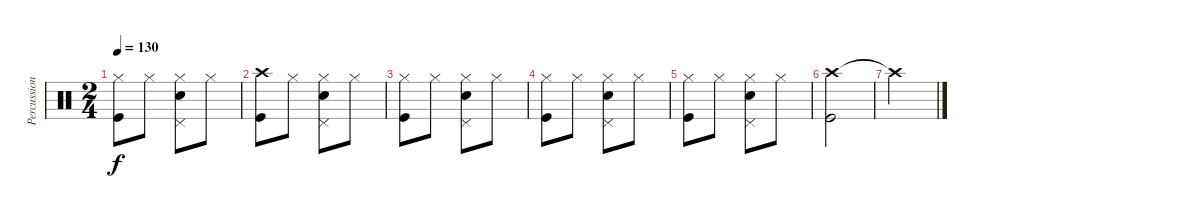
\track ("Percussioni" "Percussion") {instrument percussion}
\staff {score}
\articulation defaults
\ts (2 4)
\tempo 130
\clef neutral
\ks c
("Hi-Hat (closed)" "Kick (hit)").8{dy f} "Hi-Hat (closed)".8 ("Hi-Hat (closed)" "Pedal Hi-Hat (hit)" "Snare (hit) 2").8 "Hi-Hat (closed)".8 |
("Crash high (hit)" "Kick (hit)").8 "Hi-Hat (closed)".8 ("Hi-Hat (closed)" "Pedal Hi-Hat (hit)" "Snare (hit) 2").8 "Hi-Hat (closed)".8 |
("Hi-Hat (closed)" "Kick (hit)").8 "Hi-Hat (closed)".8 ("Hi-Hat (closed)" "Pedal Hi-Hat (hit)" "Snare (hit) 2").8 "Hi-Hat (closed)".8 |
("Hi-Hat (closed)" "Kick (hit)").8 "Hi-Hat (closed)".8 ("Hi-Hat (closed)" "Pedal Hi-Hat (hit)" "Snare (hit) 2").8 "Hi-Hat (closed)".8 |
("Hi-Hat (closed)" "Kick (hit)").8 "Hi-Hat (closed)".8 ("Hi-Hat (closed)" "Pedal Hi-Hat (hit)" "Snare (hit) 2").8 "Hi-Hat (closed)".8 |
("Crash high (hit)" "Kick (hit)").2 |
"Crash high (hit)"{t}.2
